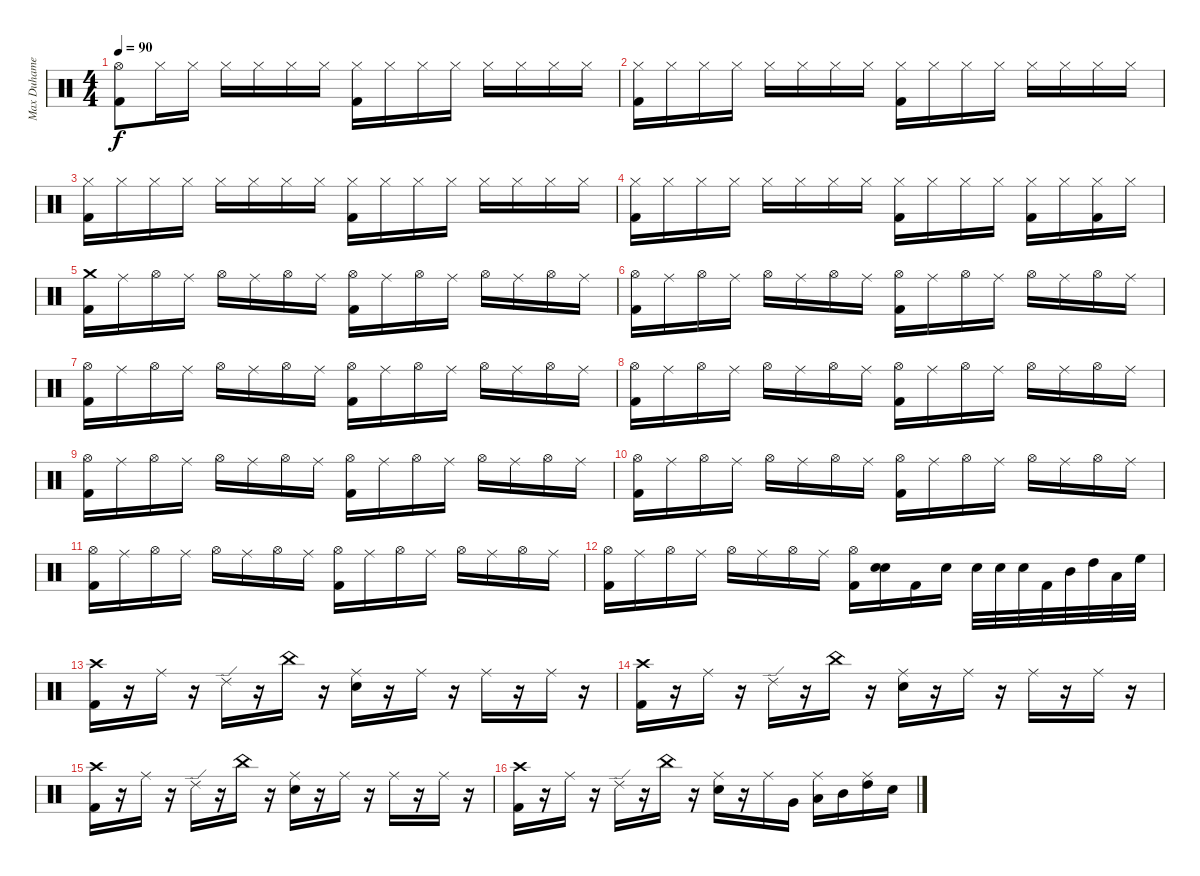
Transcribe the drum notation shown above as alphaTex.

\track ("Max Duhamel (Drums)" "Max Duhame") {instrument percussion}
\staff {score}
\articulation defaults
\ts (4 4)
\tempo 90
\clef neutral
\ks c
("Hi-Hat (open)" "Kick (hit) 2").8{dy f} "Hi-Hat (closed)".16 "Hi-Hat (closed)".16 "Hi-Hat (closed)".16 "Hi-Hat (closed)".16 "Hi-Hat (closed)".16 "Hi-Hat (closed)".16 ("Hi-Hat (closed)" "Kick (hit) 2").16 "Hi-Hat (closed)".16 "Hi-Hat (closed)".16 "Hi-Hat (closed)".16 "Hi-Hat (closed)".16 "Hi-Hat (closed)".16 "Hi-Hat (closed)".16 "Hi-Hat (closed)".16 |
("Hi-Hat (closed)" "Kick (hit) 2").16 "Hi-Hat (closed)".16 "Hi-Hat (closed)".16 "Hi-Hat (closed)".16 "Hi-Hat (closed)".16 "Hi-Hat (closed)".16 "Hi-Hat (closed)".16 "Hi-Hat (closed)".16 ("Hi-Hat (closed)" "Kick (hit) 2").16 "Hi-Hat (closed)".16 "Hi-Hat (closed)".16 "Hi-Hat (closed)".16 "Hi-Hat (closed)".16 "Hi-Hat (closed)".16 "Hi-Hat (closed)".16 "Hi-Hat (closed)".16 |
("Hi-Hat (closed)" "Kick (hit) 2").16 "Hi-Hat (closed)".16 "Hi-Hat (closed)".16 "Hi-Hat (closed)".16 "Hi-Hat (closed)".16 "Hi-Hat (closed)".16 "Hi-Hat (closed)".16 "Hi-Hat (closed)".16 ("Hi-Hat (closed)" "Kick (hit) 2").16 "Hi-Hat (closed)".16 "Hi-Hat (closed)".16 "Hi-Hat (closed)".16 "Hi-Hat (closed)".16 "Hi-Hat (closed)".16 "Hi-Hat (closed)".16 "Hi-Hat (closed)".16 |
("Hi-Hat (closed)" "Kick (hit) 2").16 "Hi-Hat (closed)".16 "Hi-Hat (closed)".16 "Hi-Hat (closed)".16 "Hi-Hat (closed)".16 "Hi-Hat (closed)".16 "Hi-Hat (closed)".16 "Hi-Hat (closed)".16 ("Hi-Hat (closed)" "Kick (hit) 2").16 "Hi-Hat (closed)".16 "Hi-Hat (closed)".16 "Hi-Hat (closed)".16 ("Hi-Hat (closed)" "Kick (hit) 2").16 "Hi-Hat (closed)".16 ("Hi-Hat (closed)" "Kick (hit) 2").16 "Hi-Hat (closed)".16 |
("Crash medium (hit)" "Kick (hit) 2").16 "Ride (middle)".16 "Hi-Hat (open)".16 "Ride (middle)".16 "Hi-Hat (open)".16 "Ride (middle)".16 "Hi-Hat (open)".16 "Ride (middle)".16 ("Hi-Hat (open)" "Kick (hit) 2").16 "Ride (middle)".16 "Hi-Hat (open)".16 "Ride (middle)".16 "Hi-Hat (open)".16 "Ride (middle)".16 "Hi-Hat (open)".16 "Ride (middle)".16 |
("Hi-Hat (open)" "Kick (hit) 2").16 "Ride (middle)".16 "Hi-Hat (open)".16 "Ride (middle)".16 "Hi-Hat (open)".16 "Ride (middle)".16 "Hi-Hat (open)".16 "Ride (middle)".16 ("Hi-Hat (open)" "Kick (hit) 2").16 "Ride (middle)".16 "Hi-Hat (open)".16 "Ride (middle)".16 "Hi-Hat (open)".16 "Ride (middle)".16 "Hi-Hat (open)".16 "Ride (middle)".16 |
("Hi-Hat (open)" "Kick (hit) 2").16 "Ride (middle)".16 "Hi-Hat (open)".16 "Ride (middle)".16 "Hi-Hat (open)".16 "Ride (middle)".16 "Hi-Hat (open)".16 "Ride (middle)".16 ("Hi-Hat (open)" "Kick (hit) 2").16 "Ride (middle)".16 "Hi-Hat (open)".16 "Ride (middle)".16 "Hi-Hat (open)".16 "Ride (middle)".16 "Hi-Hat (open)".16 "Ride (middle)".16 |
("Hi-Hat (open)" "Kick (hit) 2").16 "Ride (middle)".16 "Hi-Hat (open)".16 "Ride (middle)".16 "Hi-Hat (open)".16 "Ride (middle)".16 "Hi-Hat (open)".16 "Ride (middle)".16 ("Hi-Hat (open)" "Kick (hit) 2").16 "Ride (middle)".16 "Hi-Hat (open)".16 "Ride (middle)".16 "Hi-Hat (open)".16 "Ride (middle)".16 "Hi-Hat (open)".16 "Ride (middle)".16 |
("Hi-Hat (open)" "Kick (hit) 2").16 "Ride (middle)".16 "Hi-Hat (open)".16 "Ride (middle)".16 "Hi-Hat (open)".16 "Ride (middle)".16 "Hi-Hat (open)".16 "Ride (middle)".16 ("Hi-Hat (open)" "Kick (hit) 2").16 "Ride (middle)".16 "Hi-Hat (open)".16 "Ride (middle)".16 "Hi-Hat (open)".16 "Ride (middle)".16 "Hi-Hat (open)".16 "Ride (middle)".16 |
("Hi-Hat (open)" "Kick (hit) 2").16 "Ride (middle)".16 "Hi-Hat (open)".16 "Ride (middle)".16 "Hi-Hat (open)".16 "Ride (middle)".16 "Hi-Hat (open)".16 "Ride (middle)".16 ("Hi-Hat (open)" "Kick (hit) 2").16 "Ride (middle)".16 "Hi-Hat (open)".16 "Ride (middle)".16 "Hi-Hat (open)".16 "Ride (middle)".16 "Hi-Hat (open)".16 "Ride (middle)".16 |
("Hi-Hat (open)" "Kick (hit) 2").16 "Ride (middle)".16 "Hi-Hat (open)".16 "Ride (middle)".16 "Hi-Hat (open)".16 "Ride (middle)".16 "Hi-Hat (open)".16 "Ride (middle)".16 ("Hi-Hat (open)" "Kick (hit) 2").16 "Ride (middle)".16 "Hi-Hat (open)".16 "Ride (middle)".16 "Hi-Hat (open)".16 "Ride (middle)".16 "Hi-Hat (open)".16 "Ride (middle)".16 |
("Hi-Hat (open)" "Kick (hit) 2").16 "Ride (middle)".16 "Hi-Hat (open)".16 "Ride (middle)".16 "Hi-Hat (open)".16 "Ride (middle)".16 "Hi-Hat (open)".16 "Ride (middle)".16 ("Hi-Hat (open)" "Kick (hit) 2").16 ("Snare (hit) 2" "Snare (hit) 2").16{bd 480} "Kick (hit) 2".16 "Snare (hit) 2".16 "Snare (hit) 2".32 "Snare (hit) 2".32 "Snare (hit) 2".32 "Kick (hit) 2".32 "Mid Tom (hit)".32 "High Tom (hit)".32 "Low Tom (hit)".32 "High Floor Tom (hit)".32 |
("Crash high (hit)" "Kick (hit) 2").16 r.16 "Ride (middle)".16 r.16 "Ride (edge) 2".16 r.16 "China (hit)".16 r.16 ("Ride (middle)" "Snare (hit) 2").16 r.16 "Ride (middle)".16 r.16 "Ride (middle)".16 r.16 "Ride (middle)".16 r.16 |
("Crash high (hit)" "Kick (hit) 2").16 r.16 "Ride (middle)".16 r.16 "Ride (edge) 2".16 r.16 "China (hit)".16 r.16 ("Ride (middle)" "Snare (hit) 2").16 r.16 "Ride (middle)".16 r.16 "Ride (middle)".16 r.16 "Ride (middle)".16 r.16 |
("Crash high (hit)" "Kick (hit) 2").16 r.16 "Ride (middle)".16 r.16 "Ride (edge) 2".16 r.16 "China (hit)".16 r.16 ("Ride (middle)" "Snare (hit) 2").16 r.16 "Ride (middle)".16 r.16 "Ride (middle)".16 r.16 "Ride (middle)".16 r.16 |
("Crash high (hit)" "Kick (hit) 2").16 r.16 "Ride (middle)".16 r.16 "Ride (edge) 2".16 r.16 "China (hit)".16 r.16 ("Ride (middle)" "Snare (hit) 2").16 r.16 "Ride (middle)".16 "Very Low Tom (hit)".16 ("Ride (middle)" "Low Tom (hit)").16 "Mid Tom (hit)".16 ("Ride (middle)" "High Tom (hit)").16 "Snare (hit) 2".16
